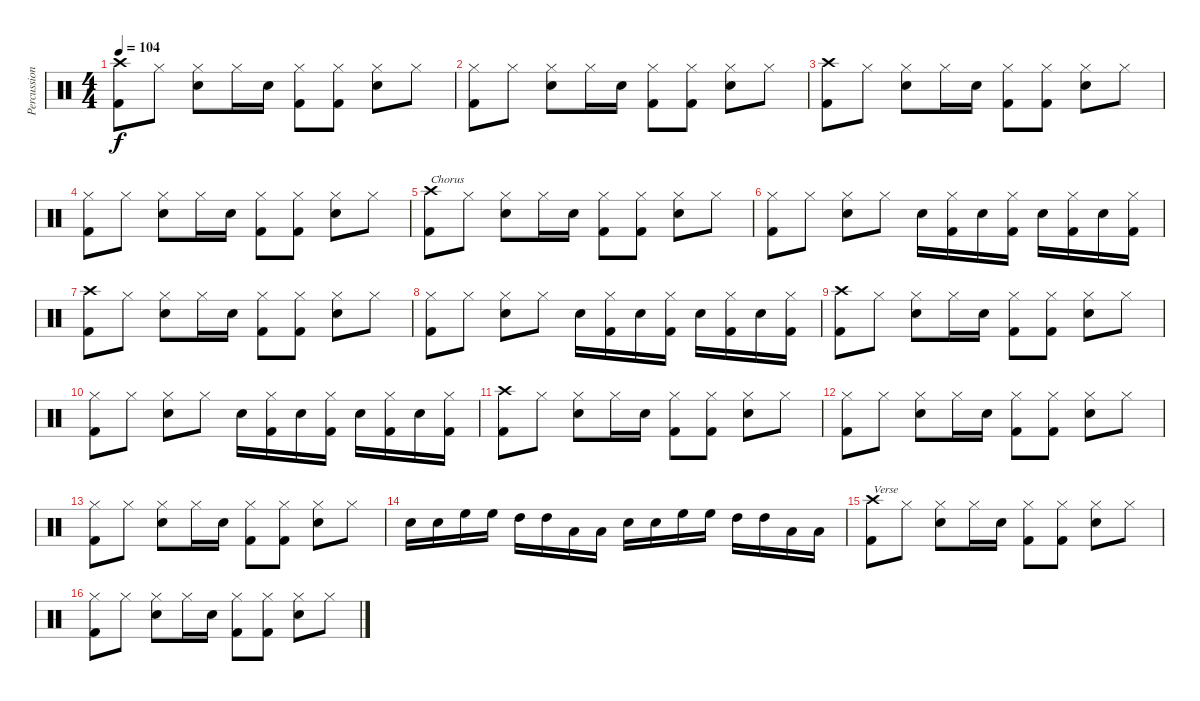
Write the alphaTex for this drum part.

\track ("Percussion" "Percussion") {instrument percussion}
\staff {score}
\articulation defaults
\ts (4 4)
\tempo 104
\clef neutral
\ks c
("Crash high (hit)" "Kick (hit) 2").8{dy f} "Hi-Hat (closed)".8 ("Hi-Hat (closed)" "Snare (hit) 2").8 "Hi-Hat (closed)".16 "Snare (hit) 2".16 ("Hi-Hat (closed)" "Kick (hit) 2").8 ("Hi-Hat (closed)" "Kick (hit) 2").8 ("Hi-Hat (closed)" "Snare (hit) 2").8 "Hi-Hat (closed)".8 |
("Hi-Hat (closed)" "Kick (hit) 2").8 "Hi-Hat (closed)".8 ("Hi-Hat (closed)" "Snare (hit) 2").8 "Hi-Hat (closed)".16 "Snare (hit) 2".16 ("Hi-Hat (closed)" "Kick (hit) 2").8 ("Hi-Hat (closed)" "Kick (hit) 2").8 ("Hi-Hat (closed)" "Snare (hit) 2").8 "Hi-Hat (closed)".8 |
("Crash high (hit)" "Kick (hit) 2").8 "Hi-Hat (closed)".8 ("Hi-Hat (closed)" "Snare (hit) 2").8 "Hi-Hat (closed)".16 "Snare (hit) 2".16 ("Hi-Hat (closed)" "Kick (hit) 2").8 ("Hi-Hat (closed)" "Kick (hit) 2").8 ("Hi-Hat (closed)" "Snare (hit) 2").8 "Hi-Hat (closed)".8 |
("Hi-Hat (closed)" "Kick (hit) 2").8 "Hi-Hat (closed)".8 ("Hi-Hat (closed)" "Snare (hit) 2").8 "Hi-Hat (closed)".16 "Snare (hit) 2".16 ("Hi-Hat (closed)" "Kick (hit) 2").8 ("Hi-Hat (closed)" "Kick (hit) 2").8 ("Hi-Hat (closed)" "Snare (hit) 2").8 "Hi-Hat (closed)".8 |
("Crash high (hit)" "Kick (hit) 2").8{txt "Chorus"} "Hi-Hat (closed)".8 ("Hi-Hat (closed)" "Snare (hit) 2").8 "Hi-Hat (closed)".16 "Snare (hit) 2".16 ("Hi-Hat (closed)" "Kick (hit) 2").8 ("Hi-Hat (closed)" "Kick (hit) 2").8 ("Hi-Hat (closed)" "Snare (hit) 2").8 "Hi-Hat (closed)".8 |
("Hi-Hat (closed)" "Kick (hit) 2").8 "Hi-Hat (closed)".8 ("Hi-Hat (closed)" "Snare (hit) 2").8 "Hi-Hat (closed)".8 "Snare (hit) 2".16 ("Hi-Hat (closed)" "Kick (hit) 2").16 "Snare (hit) 2".16 ("Hi-Hat (closed)" "Kick (hit) 2").16 "Snare (hit) 2".16 ("Hi-Hat (closed)" "Kick (hit) 2").16 "Snare (hit) 2".16 ("Hi-Hat (closed)" "Kick (hit) 2").16 |
("Crash high (hit)" "Kick (hit) 2").8 "Hi-Hat (closed)".8 ("Hi-Hat (closed)" "Snare (hit) 2").8 "Hi-Hat (closed)".16 "Snare (hit) 2".16 ("Hi-Hat (closed)" "Kick (hit) 2").8 ("Hi-Hat (closed)" "Kick (hit) 2").8 ("Hi-Hat (closed)" "Snare (hit) 2").8 "Hi-Hat (closed)".8 |
("Hi-Hat (closed)" "Kick (hit) 2").8 "Hi-Hat (closed)".8 ("Hi-Hat (closed)" "Snare (hit) 2").8 "Hi-Hat (closed)".8 "Snare (hit) 2".16 ("Hi-Hat (closed)" "Kick (hit) 2").16 "Snare (hit) 2".16 ("Hi-Hat (closed)" "Kick (hit) 2").16 "Snare (hit) 2".16 ("Hi-Hat (closed)" "Kick (hit) 2").16 "Snare (hit) 2".16 ("Hi-Hat (closed)" "Kick (hit) 2").16 |
("Crash high (hit)" "Kick (hit) 2").8 "Hi-Hat (closed)".8 ("Hi-Hat (closed)" "Snare (hit) 2").8 "Hi-Hat (closed)".16 "Snare (hit) 2".16 ("Hi-Hat (closed)" "Kick (hit) 2").8 ("Hi-Hat (closed)" "Kick (hit) 2").8 ("Hi-Hat (closed)" "Snare (hit) 2").8 "Hi-Hat (closed)".8 |
("Hi-Hat (closed)" "Kick (hit) 2").8 "Hi-Hat (closed)".8 ("Hi-Hat (closed)" "Snare (hit) 2").8 "Hi-Hat (closed)".8 "Snare (hit) 2".16 ("Hi-Hat (closed)" "Kick (hit) 2").16 "Snare (hit) 2".16 ("Hi-Hat (closed)" "Kick (hit) 2").16 "Snare (hit) 2".16 ("Hi-Hat (closed)" "Kick (hit) 2").16 "Snare (hit) 2".16 ("Hi-Hat (closed)" "Kick (hit) 2").16 |
("Crash high (hit)" "Kick (hit) 2").8 "Hi-Hat (closed)".8 ("Hi-Hat (closed)" "Snare (hit) 2").8 "Hi-Hat (closed)".16 "Snare (hit) 2".16 ("Hi-Hat (closed)" "Kick (hit) 2").8 ("Hi-Hat (closed)" "Kick (hit) 2").8 ("Hi-Hat (closed)" "Snare (hit) 2").8 "Hi-Hat (closed)".8 |
("Hi-Hat (closed)" "Kick (hit) 2").8 "Hi-Hat (closed)".8 ("Hi-Hat (closed)" "Snare (hit) 2").8 "Hi-Hat (closed)".16 "Snare (hit) 2".16 ("Hi-Hat (closed)" "Kick (hit) 2").8 ("Hi-Hat (closed)" "Kick (hit) 2").8 ("Hi-Hat (closed)" "Snare (hit) 2").8 "Hi-Hat (closed)".8 |
("Hi-Hat (closed)" "Kick (hit) 2").8 "Hi-Hat (closed)".8 ("Hi-Hat (closed)" "Snare (hit) 2").8 "Hi-Hat (closed)".16 "Snare (hit) 2".16 ("Hi-Hat (closed)" "Kick (hit) 2").8 ("Hi-Hat (closed)" "Kick (hit) 2").8 ("Hi-Hat (closed)" "Snare (hit) 2").8 "Hi-Hat (closed)".8 |
"Snare (hit) 2".16 "Snare (hit) 2".16 "High Floor Tom (hit)".16 "High Floor Tom (hit)".16 "High Tom (hit)".16 "High Tom (hit)".16 "Low Tom (hit)".16 "Low Tom (hit)".16 "Snare (hit) 2".16 "Snare (hit) 2".16 "High Floor Tom (hit)".16 "High Floor Tom (hit)".16 "High Tom (hit)".16 "High Tom (hit)".16 "Low Tom (hit)".16 "Low Tom (hit)".16 |
("Crash high (hit)" "Kick (hit) 2").8{txt "Verse"} "Hi-Hat (closed)".8 ("Hi-Hat (closed)" "Snare (hit) 2").8 "Hi-Hat (closed)".16 "Snare (hit) 2".16 ("Hi-Hat (closed)" "Kick (hit) 2").8 ("Hi-Hat (closed)" "Kick (hit) 2").8 ("Hi-Hat (closed)" "Snare (hit) 2").8 "Hi-Hat (closed)".8 |
("Hi-Hat (closed)" "Kick (hit) 2").8 "Hi-Hat (closed)".8 ("Hi-Hat (closed)" "Snare (hit) 2").8 "Hi-Hat (closed)".16 "Snare (hit) 2".16 ("Hi-Hat (closed)" "Kick (hit) 2").8 ("Hi-Hat (closed)" "Kick (hit) 2").8 ("Hi-Hat (closed)" "Snare (hit) 2").8 "Hi-Hat (closed)".8
